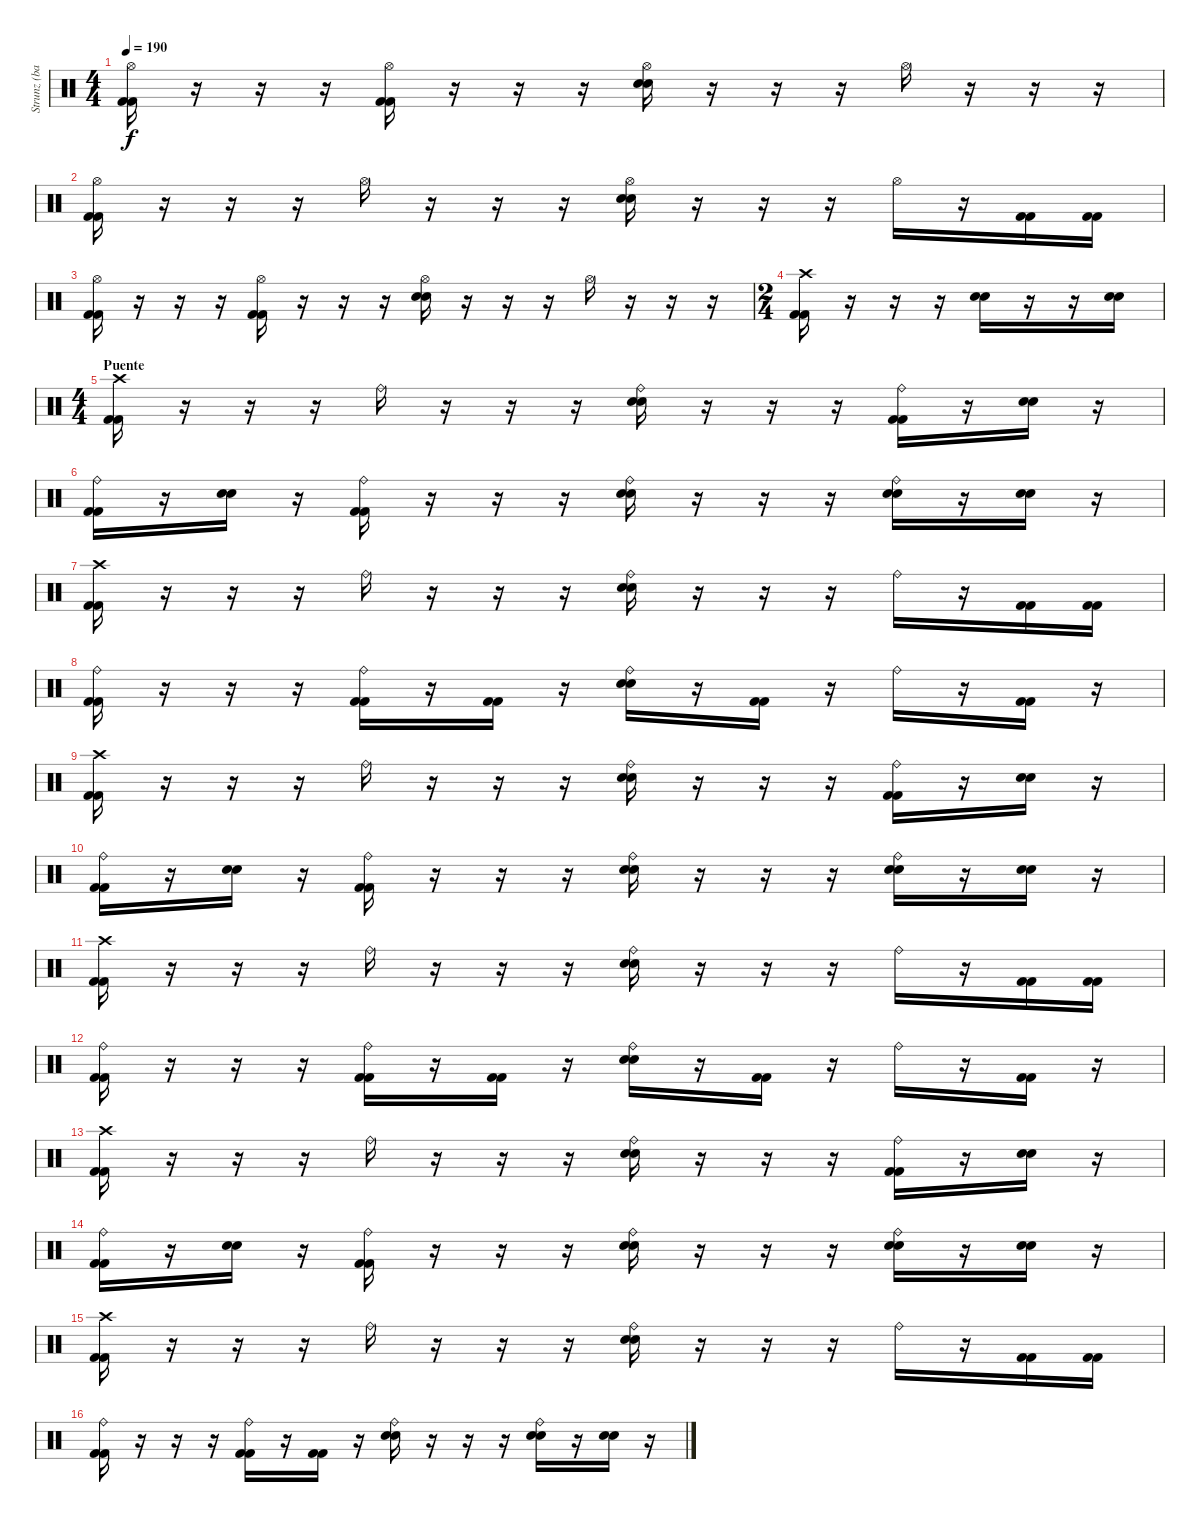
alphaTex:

\track ("Strunz (bateria)" "Strunz (ba") {instrument percussion}
\staff {score}
\articulation defaults
\ts (4 4)
\tempo 190
\clef neutral
\ks c
("Hi-Hat (open)" "Kick (hit) 2" "Kick (hit) 2").16{dy f} r.16 r.16 r.16 ("Hi-Hat (open)" "Kick (hit) 2" "Kick (hit) 2").16 r.16 r.16 r.16 ("Hi-Hat (open)" "Snare (hit) 2" "Snare (hit) 2").16 r.16 r.16 r.16 "Hi-Hat (open)".16 r.16 r.16 r.16 |
("Hi-Hat (open)" "Kick (hit) 2" "Kick (hit) 2").16 r.16 r.16 r.16 "Hi-Hat (open)".16 r.16 r.16 r.16 ("Hi-Hat (open)" "Snare (hit) 2" "Snare (hit) 2").16 r.16 r.16 r.16 "Hi-Hat (open)".16 r.16 ("Kick (hit) 2" "Kick (hit) 2").16 ("Kick (hit) 2" "Kick (hit) 2").16 |
("Hi-Hat (open)" "Kick (hit) 2" "Kick (hit) 2").16 r.16 r.16 r.16 ("Hi-Hat (open)" "Kick (hit) 2" "Kick (hit) 2").16 r.16 r.16 r.16 ("Hi-Hat (open)" "Snare (hit) 2" "Snare (hit) 2").16 r.16 r.16 r.16 "Hi-Hat (open)".16 r.16 r.16 r.16 |
\ts (2 4)
("Crash high (hit)" "Kick (hit) 2" "Kick (hit) 2").16 r.16 r.16 r.16 ("Snare (hit) 2" "Snare (hit) 2").16 r.16 r.16 ("Snare (hit) 2" "Snare (hit) 2").16 |
\ts (4 4)
\section ("" "Puente")
("Crash high (hit)" "Kick (hit) 2" "Kick (hit) 2").16 r.16 r.16 r.16 "Ride (bell)".16 r.16 r.16 r.16 ("Ride (bell)" "Snare (hit) 2" "Snare (hit) 2").16 r.16 r.16 r.16 ("Ride (bell)" "Kick (hit) 2" "Kick (hit) 2").16 r.16 ("Snare (hit) 2" "Snare (hit) 2").16 r.16 |
("Ride (bell)" "Kick (hit) 2" "Kick (hit) 2").16 r.16 ("Snare (hit) 2" "Snare (hit) 2").16 r.16 ("Ride (bell)" "Kick (hit) 2" "Kick (hit) 2").16 r.16 r.16 r.16 ("Ride (bell)" "Snare (hit) 2" "Snare (hit) 2").16 r.16 r.16 r.16 ("Ride (bell)" "Snare (hit) 2" "Snare (hit) 2").16 r.16 ("Snare (hit) 2" "Snare (hit) 2").16 r.16 |
("Crash high (hit)" "Kick (hit) 2" "Kick (hit) 2").16 r.16 r.16 r.16 "Ride (bell)".16 r.16 r.16 r.16 ("Ride (bell)" "Snare (hit) 2" "Snare (hit) 2").16 r.16 r.16 r.16 "Ride (bell)".16 r.16 ("Kick (hit) 2" "Kick (hit) 2").16 ("Kick (hit) 2" "Kick (hit) 2").16 |
("Ride (bell)" "Kick (hit) 2" "Kick (hit) 2").16 r.16 r.16 r.16 ("Ride (bell)" "Kick (hit) 2" "Kick (hit) 2").16 r.16 ("Kick (hit) 2" "Kick (hit) 2").16 r.16 ("Ride (bell)" "Snare (hit) 2" "Snare (hit) 2").16 r.16 ("Kick (hit) 2" "Kick (hit) 2").16 r.16 "Ride (bell)".16 r.16 ("Kick (hit) 2" "Kick (hit) 2").16 r.16 |
("Crash high (hit)" "Kick (hit) 2" "Kick (hit) 2").16 r.16 r.16 r.16 "Ride (bell)".16 r.16 r.16 r.16 ("Ride (bell)" "Snare (hit) 2" "Snare (hit) 2").16 r.16 r.16 r.16 ("Ride (bell)" "Kick (hit) 2" "Kick (hit) 2").16 r.16 ("Snare (hit) 2" "Snare (hit) 2").16 r.16 |
("Ride (bell)" "Kick (hit) 2" "Kick (hit) 2").16 r.16 ("Snare (hit) 2" "Snare (hit) 2").16 r.16 ("Ride (bell)" "Kick (hit) 2" "Kick (hit) 2").16 r.16 r.16 r.16 ("Ride (bell)" "Snare (hit) 2" "Snare (hit) 2").16 r.16 r.16 r.16 ("Ride (bell)" "Snare (hit) 2" "Snare (hit) 2").16 r.16 ("Snare (hit) 2" "Snare (hit) 2").16 r.16 |
("Crash high (hit)" "Kick (hit) 2" "Kick (hit) 2").16 r.16 r.16 r.16 "Ride (bell)".16 r.16 r.16 r.16 ("Ride (bell)" "Snare (hit) 2" "Snare (hit) 2").16 r.16 r.16 r.16 "Ride (bell)".16 r.16 ("Kick (hit) 2" "Kick (hit) 2").16 ("Kick (hit) 2" "Kick (hit) 2").16 |
("Ride (bell)" "Kick (hit) 2" "Kick (hit) 2").16 r.16 r.16 r.16 ("Ride (bell)" "Kick (hit) 2" "Kick (hit) 2").16 r.16 ("Kick (hit) 2" "Kick (hit) 2").16 r.16 ("Ride (bell)" "Snare (hit) 2" "Snare (hit) 2").16 r.16 ("Kick (hit) 2" "Kick (hit) 2").16 r.16 "Ride (bell)".16 r.16 ("Kick (hit) 2" "Kick (hit) 2").16 r.16 |
("Crash high (hit)" "Kick (hit) 2" "Kick (hit) 2").16 r.16 r.16 r.16 "Ride (bell)".16 r.16 r.16 r.16 ("Ride (bell)" "Snare (hit) 2" "Snare (hit) 2").16 r.16 r.16 r.16 ("Ride (bell)" "Kick (hit) 2" "Kick (hit) 2").16 r.16 ("Snare (hit) 2" "Snare (hit) 2").16 r.16 |
("Ride (bell)" "Kick (hit) 2" "Kick (hit) 2").16 r.16 ("Snare (hit) 2" "Snare (hit) 2").16 r.16 ("Ride (bell)" "Kick (hit) 2" "Kick (hit) 2").16 r.16 r.16 r.16 ("Ride (bell)" "Snare (hit) 2" "Snare (hit) 2").16 r.16 r.16 r.16 ("Ride (bell)" "Snare (hit) 2" "Snare (hit) 2").16 r.16 ("Snare (hit) 2" "Snare (hit) 2").16 r.16 |
("Crash high (hit)" "Kick (hit) 2" "Kick (hit) 2").16 r.16 r.16 r.16 "Ride (bell)".16 r.16 r.16 r.16 ("Ride (bell)" "Snare (hit) 2" "Snare (hit) 2").16 r.16 r.16 r.16 "Ride (bell)".16 r.16 ("Kick (hit) 2" "Kick (hit) 2").16 ("Kick (hit) 2" "Kick (hit) 2").16 |
("Ride (bell)" "Kick (hit) 2" "Kick (hit) 2").16 r.16 r.16 r.16 ("Ride (bell)" "Kick (hit) 2" "Kick (hit) 2").16 r.16 ("Kick (hit) 2" "Kick (hit) 2").16 r.16 ("Ride (bell)" "Snare (hit) 2" "Snare (hit) 2").16 r.16 r.16 r.16 ("Ride (bell)" "Snare (hit) 2" "Snare (hit) 2").16 r.16 ("Snare (hit) 2" "Snare (hit) 2").16 r.16
